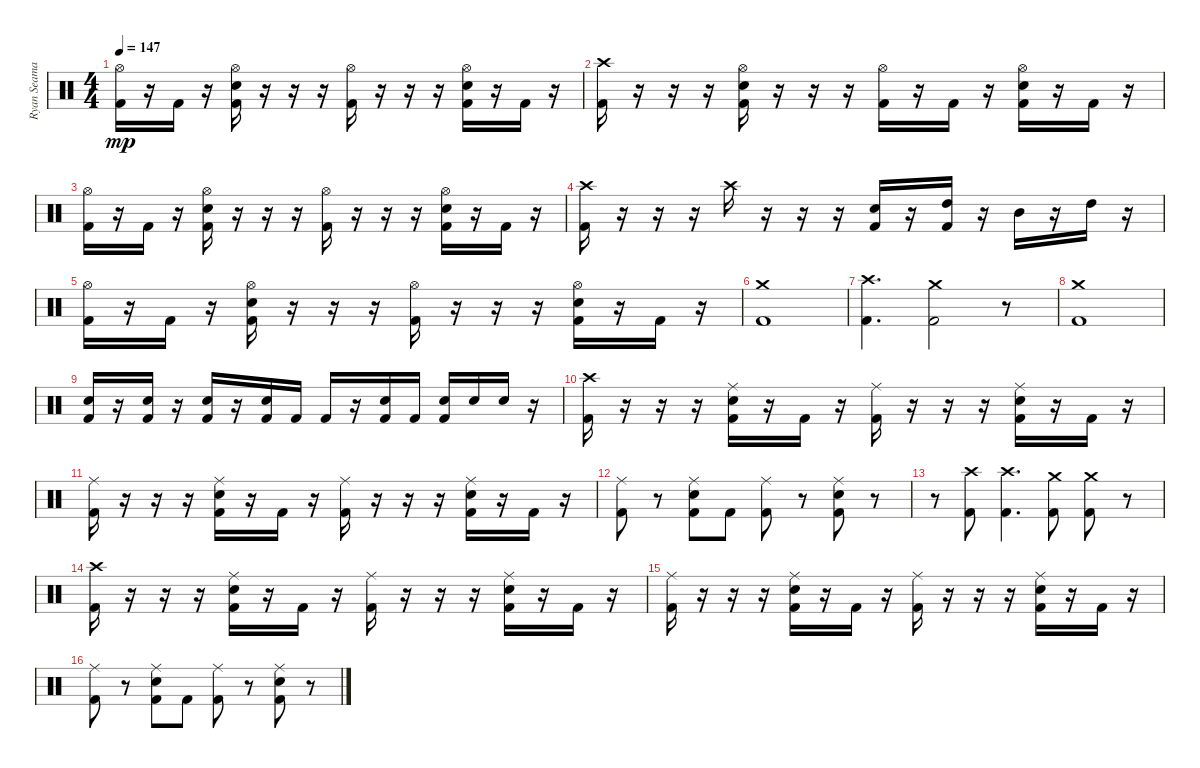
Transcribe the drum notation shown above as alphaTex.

\track ("Ryan Seaman - Drum" "Ryan Seama") {instrument percussion}
\staff {score}
\articulation defaults
\ts (4 4)
\tempo 147
\clef neutral
\ks c
("Hi-Hat (open)" "Kick (hit) 2").16{dy mp} r.16 "Kick (hit) 2".16 r.16 ("Hi-Hat (open)" "Electric Snare (hit)" "Kick (hit) 2").16 r.16 r.16 r.16 ("Hi-Hat (open)" "Kick (hit) 2").16 r.16 r.16 r.16 ("Hi-Hat (open)" "Electric Snare (hit)" "Kick (hit) 2").16 r.16 "Kick (hit) 2".16 r.16 |
("Crash high (hit)" "Kick (hit) 2").16 r.16 r.16 r.16 ("Hi-Hat (open)" "Electric Snare (hit)" "Kick (hit) 2").16 r.16 r.16 r.16 ("Hi-Hat (open)" "Kick (hit) 2").16 r.16 "Kick (hit) 2".16 r.16 ("Hi-Hat (open)" "Electric Snare (hit)" "Kick (hit) 2").16 r.16 "Kick (hit) 2".16 r.16 |
("Hi-Hat (open)" "Kick (hit) 2").16 r.16 "Kick (hit) 2".16 r.16 ("Hi-Hat (open)" "Electric Snare (hit)" "Kick (hit) 2").16 r.16 r.16 r.16 ("Hi-Hat (open)" "Kick (hit) 2").16 r.16 r.16 r.16 ("Hi-Hat (open)" "Electric Snare (hit)" "Kick (hit) 2").16 r.16 "Kick (hit) 2".16 r.16 |
("Crash high (hit)" "Kick (hit) 2").16 r.16 r.16 r.16 "Crash high (hit)".16 r.16 r.16 r.16 ("Electric Snare (hit)" "Kick (hit) 2").16 r.16 ("High Tom (hit)" "Kick (hit) 2").16 r.16 "Mid Tom (hit)".16 r.16 "High Tom (hit)".16 r.16 |
("Hi-Hat (open)" "Kick (hit) 2").16 r.16 "Kick (hit) 2".16 r.16 ("Hi-Hat (open)" "Electric Snare (hit)" "Kick (hit) 2").16 r.16 r.16 r.16 ("Hi-Hat (open)" "Kick (hit) 2").16 r.16 r.16 r.16 ("Hi-Hat (open)" "Electric Snare (hit)" "Kick (hit) 2").16 r.16 "Kick (hit) 2".16 r.16 |
("Crash medium (hit)" "Kick (hit) 2").1 |
("Crash high (hit)" "Kick (hit) 2").4{d} ("Crash medium (hit)" "Kick (hit) 2").2 r.8 |
("Crash medium (hit)" "Kick (hit) 2").1 |
("Electric Snare (hit)" "Kick (hit) 2").16 r.16 ("Electric Snare (hit)" "Kick (hit) 2").16 r.16 ("Electric Snare (hit)" "Kick (hit) 2").16 r.16 ("Electric Snare (hit)" "Kick (hit) 2").16 "Kick (hit) 2".16 "Kick (hit) 2".16 r.16 ("Electric Snare (hit)" "Kick (hit) 2").16 "Kick (hit) 2".16 ("Electric Snare (hit)" "Kick (hit) 2").16 "Electric Snare (hit)".16 "Electric Snare (hit)".16 r.16 |
("Crash high (hit)" "Kick (hit) 2").16 r.16 r.16 r.16 ("Ride (middle)" "Electric Snare (hit)" "Kick (hit) 2").16 r.16 "Kick (hit) 2".16 r.16 ("Ride (middle)" "Kick (hit) 2").16 r.16 r.16 r.16 ("Ride (middle)" "Electric Snare (hit)" "Kick (hit) 2").16 r.16 "Kick (hit) 2".16 r.16 |
("Ride (middle)" "Kick (hit) 2").16 r.16 r.16 r.16 ("Ride (middle)" "Electric Snare (hit)" "Kick (hit) 2").16 r.16 "Kick (hit) 2".16 r.16 ("Ride (middle)" "Kick (hit) 2").16 r.16 r.16 r.16 ("Ride (middle)" "Electric Snare (hit)" "Kick (hit) 2").16 r.16 "Kick (hit) 2".16 r.16 |
("Ride (middle)" "Kick (hit) 2").8 r.8 ("Ride (middle)" "Electric Snare (hit)" "Kick (hit) 2").8 "Kick (hit) 2".8 ("Ride (middle)" "Kick (hit) 2").8 r.8 ("Ride (middle)" "Electric Snare (hit)" "Kick (hit) 2").8 r.8 |
r.8 ("Crash high (hit)" "Kick (hit) 2").8 ("Crash high (hit)" "Kick (hit) 2").4{d} ("Crash medium (hit)" "Kick (hit) 2").8 ("Crash medium (hit)" "Kick (hit) 2").8 r.8 |
("Crash high (hit)" "Kick (hit) 2").16 r.16 r.16 r.16 ("Ride (middle)" "Electric Snare (hit)" "Kick (hit) 2").16 r.16 "Kick (hit) 2".16 r.16 ("Ride (middle)" "Kick (hit) 2").16 r.16 r.16 r.16 ("Ride (middle)" "Electric Snare (hit)" "Kick (hit) 2").16 r.16 "Kick (hit) 2".16 r.16 |
("Ride (middle)" "Kick (hit) 2").16 r.16 r.16 r.16 ("Ride (middle)" "Electric Snare (hit)" "Kick (hit) 2").16 r.16 "Kick (hit) 2".16 r.16 ("Ride (middle)" "Kick (hit) 2").16 r.16 r.16 r.16 ("Ride (middle)" "Electric Snare (hit)" "Kick (hit) 2").16 r.16 "Kick (hit) 2".16 r.16 |
("Ride (middle)" "Kick (hit) 2").8 r.8 ("Ride (middle)" "Electric Snare (hit)" "Kick (hit) 2").8 "Kick (hit) 2".8 ("Ride (middle)" "Kick (hit) 2").8 r.8 ("Ride (middle)" "Electric Snare (hit)" "Kick (hit) 2").8 r.8
